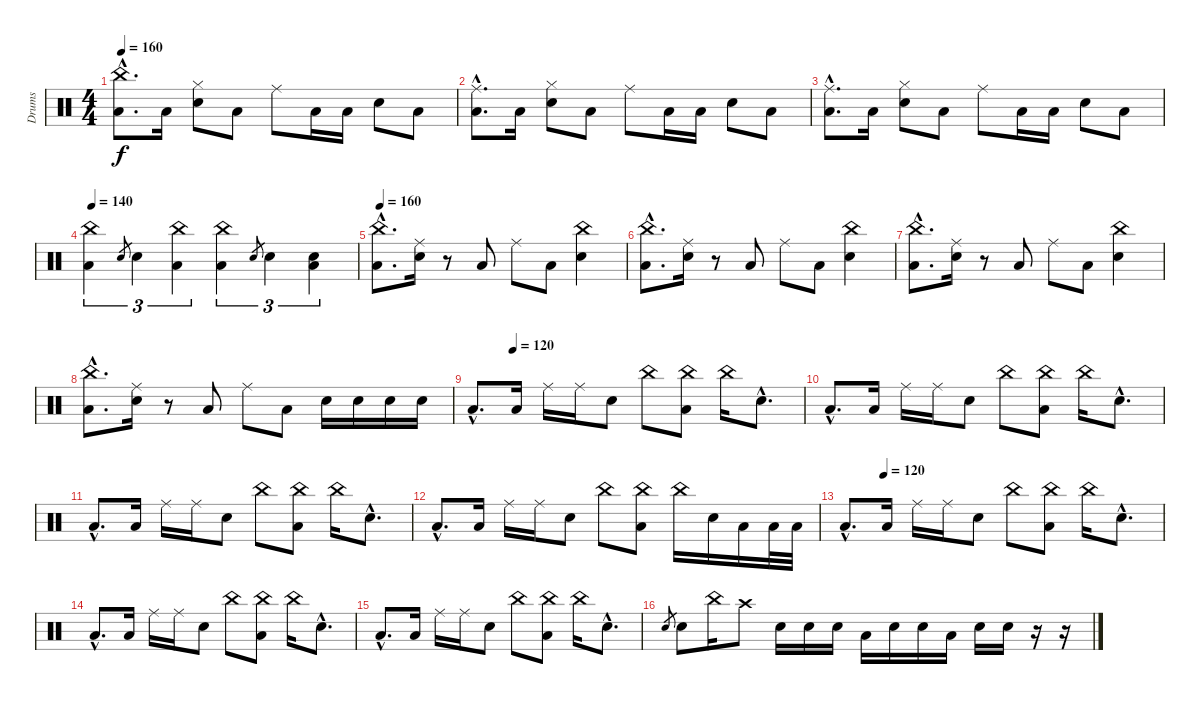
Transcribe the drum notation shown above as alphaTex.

\track ("Drums" "Drums") {instrument percussion}
\staff {score}
\articulation defaults
\ts (4 4)
\tempo 160
\clef neutral
\ks aminor
("China (hit)"{hac} "Low Floor Tom (hit)"{hac}).8{d dy f} "Low Floor Tom (hit)".16 ("Hi-Hat (closed)" "Electric Snare (hit)").8 "Low Floor Tom (hit)".8 "Ride (middle)".8 "Low Floor Tom (hit)".16 "Low Floor Tom (hit)".16 "Electric Snare (hit)".8 "Low Floor Tom (hit)".8 |
("Ride (middle)"{hac} "Low Floor Tom (hit)"{hac}).8{d} "Low Floor Tom (hit)".16 ("Hi-Hat (closed)" "Electric Snare (hit)").8 "Low Floor Tom (hit)".8 "Ride (middle)".8 "Low Floor Tom (hit)".16 "Low Floor Tom (hit)".16 "Electric Snare (hit)".8 "Low Floor Tom (hit)".8 |
("Ride (middle)"{hac} "Low Floor Tom (hit)"{hac}).8{d} "Low Floor Tom (hit)".16 ("Hi-Hat (closed)" "Electric Snare (hit)").8 "Low Floor Tom (hit)".8 "Ride (middle)".8 "Low Floor Tom (hit)".16 "Low Floor Tom (hit)".16 "Electric Snare (hit)".8 "Low Floor Tom (hit)".8 |
\tempo 140
("China (hit)" "Low Floor Tom (hit)").4{tu (3 2)} "Electric Snare (hit)".8{gr} "Electric Snare (hit)".4{tu (3 2)} ("China (hit)" "Low Floor Tom (hit)").4{tu (3 2)} ("China (hit)" "Low Floor Tom (hit)").4{tu (3 2)} "Electric Snare (hit)".8{gr} "Electric Snare (hit)".4{tu (3 2)} ("Electric Snare (hit)" "Low Floor Tom (hit)").4{tu (3 2)} |
\tempo 160
("China (hit)"{hac} "Low Floor Tom (hit)"{hac}).8{d} ("Ride (middle)" "Electric Snare (hit)").16 r.8 "Low Floor Tom (hit)".8 "Ride (middle)".8 "Low Floor Tom (hit)".8 ("China (hit)" "Electric Snare (hit)").4 |
("China (hit)"{hac} "Low Floor Tom (hit)"{hac}).8{d} ("Ride (middle)" "Electric Snare (hit)").16 r.8 "Low Floor Tom (hit)".8 "Ride (middle)".8 "Low Floor Tom (hit)".8 ("China (hit)" "Electric Snare (hit)").4 |
("China (hit)"{hac} "Low Floor Tom (hit)"{hac}).8{d} ("Ride (middle)" "Electric Snare (hit)").16 r.8 "Low Floor Tom (hit)".8 "Ride (middle)".8 "Low Floor Tom (hit)".8 ("China (hit)" "Electric Snare (hit)").4 |
("China (hit)"{hac} "Low Floor Tom (hit)"{hac}).8{d} ("Ride (middle)" "Electric Snare (hit)").16 r.8 "Low Floor Tom (hit)".8 "Ride (middle)".8 "Low Floor Tom (hit)".8 "Electric Snare (hit)".16 "Electric Snare (hit)".16 "Electric Snare (hit)".16 "Electric Snare (hit)".16 |
\tempo (120 0.125)
"Low Floor Tom (hit)"{hac}.8{d} "Low Floor Tom (hit)".16 "Ride (middle)".16 "Ride (middle)".16 "Electric Snare (hit)".8 "China (hit)".8 ("China (hit)" "Low Floor Tom (hit)").8 "China (hit)".16 "Electric Snare (hit)"{hac}.8{d} |
"Low Floor Tom (hit)"{hac}.8{d} "Low Floor Tom (hit)".16 "Ride (middle)".16 "Ride (middle)".16 "Electric Snare (hit)".8 "China (hit)".8 ("China (hit)" "Low Floor Tom (hit)").8 "China (hit)".16 "Electric Snare (hit)"{hac}.8{d} |
"Low Floor Tom (hit)"{hac}.8{d} "Low Floor Tom (hit)".16 "Ride (middle)".16 "Ride (middle)".16 "Electric Snare (hit)".8 "China (hit)".8 ("China (hit)" "Low Floor Tom (hit)").8 "China (hit)".16 "Electric Snare (hit)"{hac}.8{d} |
"Low Floor Tom (hit)"{hac}.8{d} "Low Floor Tom (hit)".16 "Ride (middle)".16 "Ride (middle)".16 "Electric Snare (hit)".8 "China (hit)".8 ("China (hit)" "Low Floor Tom (hit)").8 "China (hit)".16 "Electric Snare (hit)".16 "Low Floor Tom (hit)".16 "Low Floor Tom (hit)".32 "Low Floor Tom (hit)".32 |
\tempo (120 0.125)
"Low Floor Tom (hit)"{hac}.8{d} "Low Floor Tom (hit)".16 "Ride (middle)".16 "Ride (middle)".16 "Electric Snare (hit)".8 "China (hit)".8 ("China (hit)" "Low Floor Tom (hit)").8 "China (hit)".16 "Electric Snare (hit)"{hac}.8{d} |
"Low Floor Tom (hit)"{hac}.8{d} "Low Floor Tom (hit)".16 "Ride (middle)".16 "Ride (middle)".16 "Electric Snare (hit)".8 "China (hit)".8 ("China (hit)" "Low Floor Tom (hit)").8 "China (hit)".16 "Electric Snare (hit)"{hac}.8{d} |
"Low Floor Tom (hit)"{hac}.8{d} "Low Floor Tom (hit)".16 "Ride (middle)".16 "Ride (middle)".16 "Electric Snare (hit)".8 "China (hit)".8 ("China (hit)" "Low Floor Tom (hit)").8 "China (hit)".16 "Electric Snare (hit)"{hac}.8{d} |
"Electric Snare (hit)".8{gr} "Electric Snare (hit)".8 "China (hit)".16 "Crash high (hit)".8 "Snare (hit) 2".16 "Snare (hit) 2".16 "Snare (hit) 2".16 "Low Floor Tom (hit)".16 "Electric Snare (hit)".16 "Electric Snare (hit)".16 "Low Floor Tom (hit)".16 "Snare (hit) 2".16 "Snare (hit) 2".16 r.16 r.16
